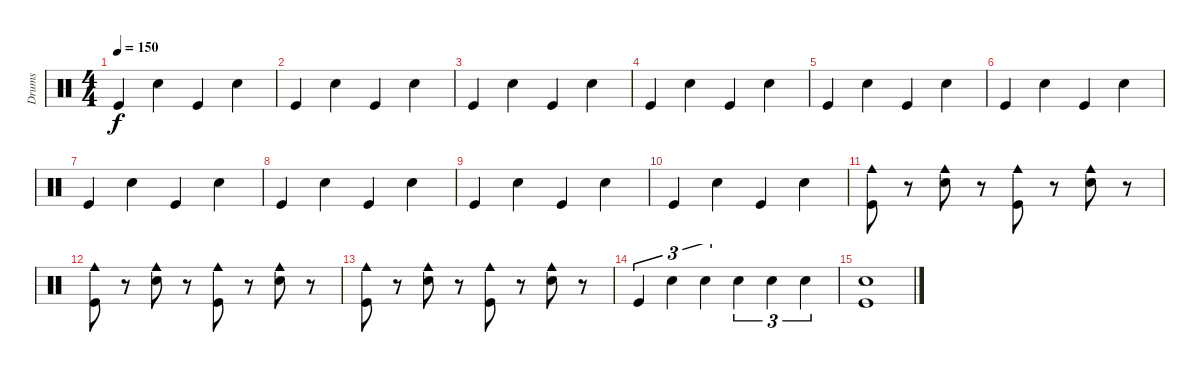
\track ("Drums" "Drums") {instrument percussion}
\staff {score}
\articulation defaults
\ts (4 4)
\tempo 150
\clef neutral
\ks c "Kick (hit)".4{dy f} "Snare (hit) 2".4 "Kick (hit)".4 "Snare (hit) 2".4
|
"Kick (hit)".4 "Snare (hit) 2".4 "Kick (hit)".4 "Snare (hit) 2".4 |
"Kick (hit)".4 "Snare (hit) 2".4 "Kick (hit)".4 "Snare (hit) 2".4 |
"Kick (hit)".4 "Snare (hit) 2".4 "Kick (hit)".4 "Snare (hit) 2".4 |
"Kick (hit)".4 "Snare (hit) 2".4 "Kick (hit)".4 "Snare (hit) 2".4 |
"Kick (hit)".4 "Snare (hit) 2".4 "Kick (hit)".4 "Snare (hit) 2".4 |
"Kick (hit)".4 "Snare (hit) 2".4 "Kick (hit)".4 "Snare (hit) 2".4 |
"Kick (hit)".4 "Snare (hit) 2".4 "Kick (hit)".4 "Snare (hit) 2".4 |
"Kick (hit)".4 "Snare (hit) 2".4 "Kick (hit)".4 "Snare (hit) 2".4 |
"Kick (hit)".4 "Snare (hit) 2".4 "Kick (hit)".4 "Snare (hit) 2".4 |
("Cowbell medium (hit)" "Kick (hit)").8 r.8 ("Cowbell medium (hit)" "Snare (hit) 2").8 r.8 ("Cowbell medium (hit)" "Kick (hit)").8 r.8 ("Cowbell medium (hit)" "Snare (hit) 2").8 r.8 |
("Cowbell medium (hit)" "Kick (hit)").8 r.8 ("Cowbell medium (hit)" "Snare (hit) 2").8 r.8 ("Cowbell medium (hit)" "Kick (hit)").8 r.8 ("Cowbell medium (hit)" "Snare (hit) 2").8 r.8 |
("Cowbell medium (hit)" "Kick (hit)").8 r.8 ("Cowbell medium (hit)" "Snare (hit) 2").8 r.8 ("Cowbell medium (hit)" "Kick (hit)").8 r.8 ("Cowbell medium (hit)" "Snare (hit) 2").8 r.8 |
"Kick (hit)".4{tu (3 2)} "Snare (hit) 2".4{tu (3 2)} "Snare (hit) 2".4{tu (3 2)} "Snare (hit) 2".4{tu (3 2)} "Snare (hit) 2".4{tu (3 2)} "Snare (hit) 2".4{tu (3 2)} |
("Snare (hit) 2" "Kick (hit)").1
